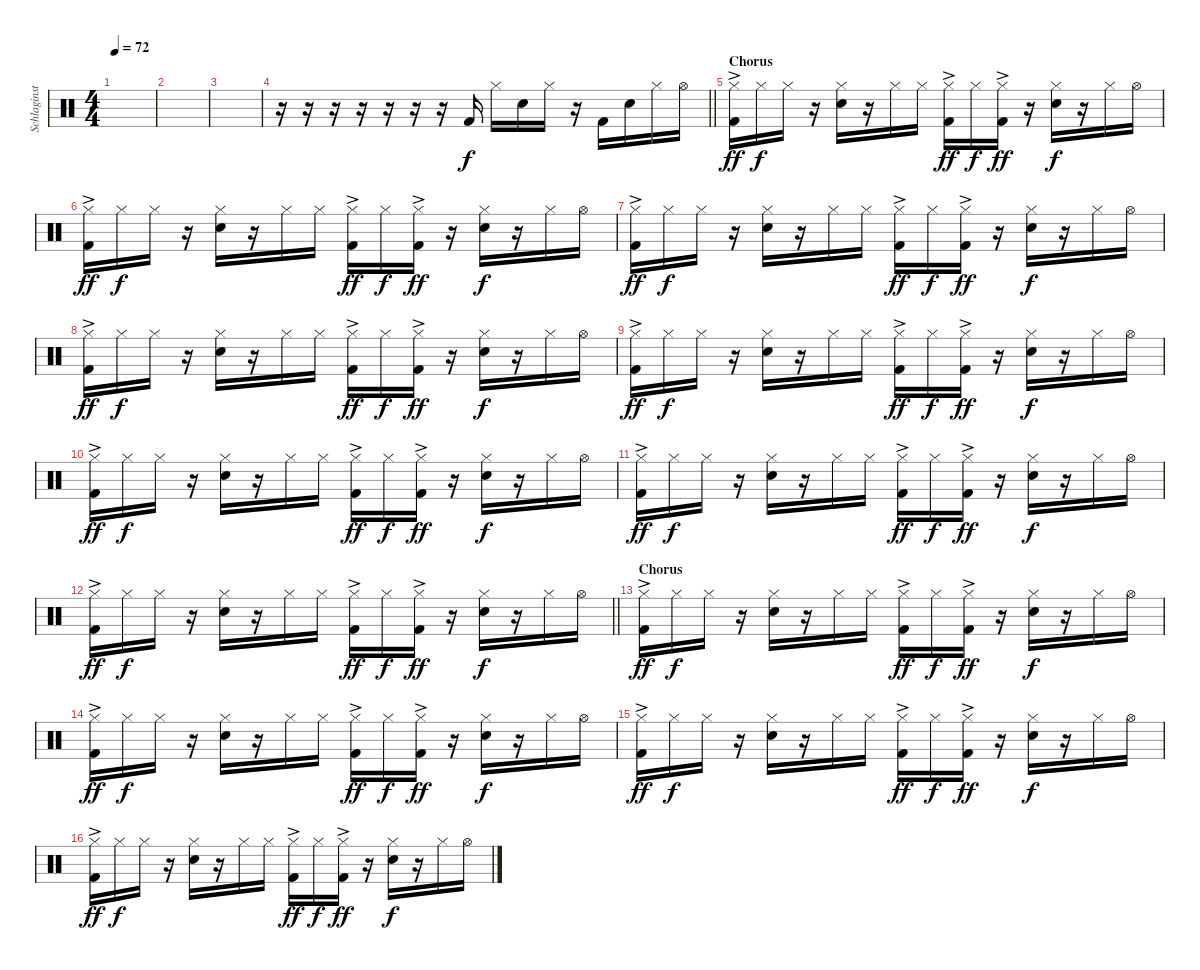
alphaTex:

\track ("Schlaginstrumente - Auswahl" "Schlaginst") {instrument percussion}
\staff {score}
\articulation defaults
\ts (4 4)
\tempo 72
\clef neutral
\ks c
|
|
|
\barLineRight lightlight
r.16 r.16 r.16 r.16 r.16 r.16 r.16 "Kick (hit) 2".16 "Hi-Hat (closed)".16 "Snare (hit) 2".16 "Hi-Hat (closed)".16 r.16 "Kick (hit) 2".16 "Snare (hit) 2".16 "Hi-Hat (closed)".16 "Hi-Hat (open)".16 |
\section ("" "Chorus")
("Hi-Hat (closed)" "Kick (hit) 2"{ac}).16{dy ff} "Hi-Hat (closed)".16{dy f} "Hi-Hat (closed)".16 r.16 ("Snare (hit) 2" "Hi-Hat (closed)").16 r.16 "Hi-Hat (closed)".16 "Hi-Hat (closed)".16 ("Hi-Hat (closed)" "Kick (hit) 2"{ac}).16{dy ff} "Hi-Hat (closed)".16{dy f} ("Hi-Hat (closed)" "Kick (hit) 2"{ac}).16{dy ff} r.16 ("Snare (hit) 2" "Hi-Hat (closed)").16{dy f} r.16 "Hi-Hat (closed)".16 "Hi-Hat (open)".16 |
("Hi-Hat (closed)" "Kick (hit) 2"{ac}).16{dy ff} "Hi-Hat (closed)".16{dy f} "Hi-Hat (closed)".16 r.16 ("Snare (hit) 2" "Hi-Hat (closed)").16 r.16 "Hi-Hat (closed)".16 "Hi-Hat (closed)".16 ("Hi-Hat (closed)" "Kick (hit) 2"{ac}).16{dy ff} "Hi-Hat (closed)".16{dy f} ("Hi-Hat (closed)" "Kick (hit) 2"{ac}).16{dy ff} r.16 ("Snare (hit) 2" "Hi-Hat (closed)").16{dy f} r.16 "Hi-Hat (closed)".16 "Hi-Hat (open)".16 |
("Hi-Hat (closed)" "Kick (hit) 2"{ac}).16{dy ff} "Hi-Hat (closed)".16{dy f} "Hi-Hat (closed)".16 r.16 ("Snare (hit) 2" "Hi-Hat (closed)").16 r.16 "Hi-Hat (closed)".16 "Hi-Hat (closed)".16 ("Hi-Hat (closed)" "Kick (hit) 2"{ac}).16{dy ff} "Hi-Hat (closed)".16{dy f} ("Hi-Hat (closed)" "Kick (hit) 2"{ac}).16{dy ff} r.16 ("Snare (hit) 2" "Hi-Hat (closed)").16{dy f} r.16 "Hi-Hat (closed)".16 "Hi-Hat (open)".16 |
("Hi-Hat (closed)" "Kick (hit) 2"{ac}).16{dy ff} "Hi-Hat (closed)".16{dy f} "Hi-Hat (closed)".16 r.16 ("Snare (hit) 2" "Hi-Hat (closed)").16 r.16 "Hi-Hat (closed)".16 "Hi-Hat (closed)".16 ("Hi-Hat (closed)" "Kick (hit) 2"{ac}).16{dy ff} "Hi-Hat (closed)".16{dy f} ("Hi-Hat (closed)" "Kick (hit) 2"{ac}).16{dy ff} r.16 ("Snare (hit) 2" "Hi-Hat (closed)").16{dy f} r.16 "Hi-Hat (closed)".16 "Hi-Hat (open)".16 |
("Hi-Hat (closed)" "Kick (hit) 2"{ac}).16{dy ff} "Hi-Hat (closed)".16{dy f} "Hi-Hat (closed)".16 r.16 ("Snare (hit) 2" "Hi-Hat (closed)").16 r.16 "Hi-Hat (closed)".16 "Hi-Hat (closed)".16 ("Hi-Hat (closed)" "Kick (hit) 2"{ac}).16{dy ff} "Hi-Hat (closed)".16{dy f} ("Hi-Hat (closed)" "Kick (hit) 2"{ac}).16{dy ff} r.16 ("Snare (hit) 2" "Hi-Hat (closed)").16{dy f} r.16 "Hi-Hat (closed)".16 "Hi-Hat (open)".16 |
("Hi-Hat (closed)" "Kick (hit) 2"{ac}).16{dy ff} "Hi-Hat (closed)".16{dy f} "Hi-Hat (closed)".16 r.16 ("Snare (hit) 2" "Hi-Hat (closed)").16 r.16 "Hi-Hat (closed)".16 "Hi-Hat (closed)".16 ("Hi-Hat (closed)" "Kick (hit) 2"{ac}).16{dy ff} "Hi-Hat (closed)".16{dy f} ("Hi-Hat (closed)" "Kick (hit) 2"{ac}).16{dy ff} r.16 ("Snare (hit) 2" "Hi-Hat (closed)").16{dy f} r.16 "Hi-Hat (closed)".16 "Hi-Hat (open)".16 |
("Hi-Hat (closed)" "Kick (hit) 2"{ac}).16{dy ff} "Hi-Hat (closed)".16{dy f} "Hi-Hat (closed)".16 r.16 ("Snare (hit) 2" "Hi-Hat (closed)").16 r.16 "Hi-Hat (closed)".16 "Hi-Hat (closed)".16 ("Hi-Hat (closed)" "Kick (hit) 2"{ac}).16{dy ff} "Hi-Hat (closed)".16{dy f} ("Hi-Hat (closed)" "Kick (hit) 2"{ac}).16{dy ff} r.16 ("Snare (hit) 2" "Hi-Hat (closed)").16{dy f} r.16 "Hi-Hat (closed)".16 "Hi-Hat (open)".16 |
\barLineRight lightlight
("Hi-Hat (closed)" "Kick (hit) 2"{ac}).16{dy ff} "Hi-Hat (closed)".16{dy f} "Hi-Hat (closed)".16 r.16 ("Snare (hit) 2" "Hi-Hat (closed)").16 r.16 "Hi-Hat (closed)".16 "Hi-Hat (closed)".16 ("Hi-Hat (closed)" "Kick (hit) 2"{ac}).16{dy ff} "Hi-Hat (closed)".16{dy f} ("Hi-Hat (closed)" "Kick (hit) 2"{ac}).16{dy ff} r.16 ("Snare (hit) 2" "Hi-Hat (closed)").16{dy f} r.16 "Hi-Hat (closed)".16 "Hi-Hat (open)".16 |
\section ("" "Chorus")
("Hi-Hat (closed)" "Kick (hit) 2"{ac}).16{dy ff} "Hi-Hat (closed)".16{dy f} "Hi-Hat (closed)".16 r.16 ("Snare (hit) 2" "Hi-Hat (closed)").16 r.16 "Hi-Hat (closed)".16 "Hi-Hat (closed)".16 ("Hi-Hat (closed)" "Kick (hit) 2"{ac}).16{dy ff} "Hi-Hat (closed)".16{dy f} ("Hi-Hat (closed)" "Kick (hit) 2"{ac}).16{dy ff} r.16 ("Snare (hit) 2" "Hi-Hat (closed)").16{dy f} r.16 "Hi-Hat (closed)".16 "Hi-Hat (open)".16 |
("Hi-Hat (closed)" "Kick (hit) 2"{ac}).16{dy ff} "Hi-Hat (closed)".16{dy f} "Hi-Hat (closed)".16 r.16 ("Snare (hit) 2" "Hi-Hat (closed)").16 r.16 "Hi-Hat (closed)".16 "Hi-Hat (closed)".16 ("Hi-Hat (closed)" "Kick (hit) 2"{ac}).16{dy ff} "Hi-Hat (closed)".16{dy f} ("Hi-Hat (closed)" "Kick (hit) 2"{ac}).16{dy ff} r.16 ("Snare (hit) 2" "Hi-Hat (closed)").16{dy f} r.16 "Hi-Hat (closed)".16 "Hi-Hat (open)".16 |
("Hi-Hat (closed)" "Kick (hit) 2"{ac}).16{dy ff} "Hi-Hat (closed)".16{dy f} "Hi-Hat (closed)".16 r.16 ("Snare (hit) 2" "Hi-Hat (closed)").16 r.16 "Hi-Hat (closed)".16 "Hi-Hat (closed)".16 ("Hi-Hat (closed)" "Kick (hit) 2"{ac}).16{dy ff} "Hi-Hat (closed)".16{dy f} ("Hi-Hat (closed)" "Kick (hit) 2"{ac}).16{dy ff} r.16 ("Snare (hit) 2" "Hi-Hat (closed)").16{dy f} r.16 "Hi-Hat (closed)".16 "Hi-Hat (open)".16 |
("Hi-Hat (closed)" "Kick (hit) 2"{ac}).16{dy ff} "Hi-Hat (closed)".16{dy f} "Hi-Hat (closed)".16 r.16 ("Snare (hit) 2" "Hi-Hat (closed)").16 r.16 "Hi-Hat (closed)".16 "Hi-Hat (closed)".16 ("Hi-Hat (closed)" "Kick (hit) 2"{ac}).16{dy ff} "Hi-Hat (closed)".16{dy f} ("Hi-Hat (closed)" "Kick (hit) 2"{ac}).16{dy ff} r.16 ("Snare (hit) 2" "Hi-Hat (closed)").16{dy f} r.16 "Hi-Hat (closed)".16 "Hi-Hat (open)".16
